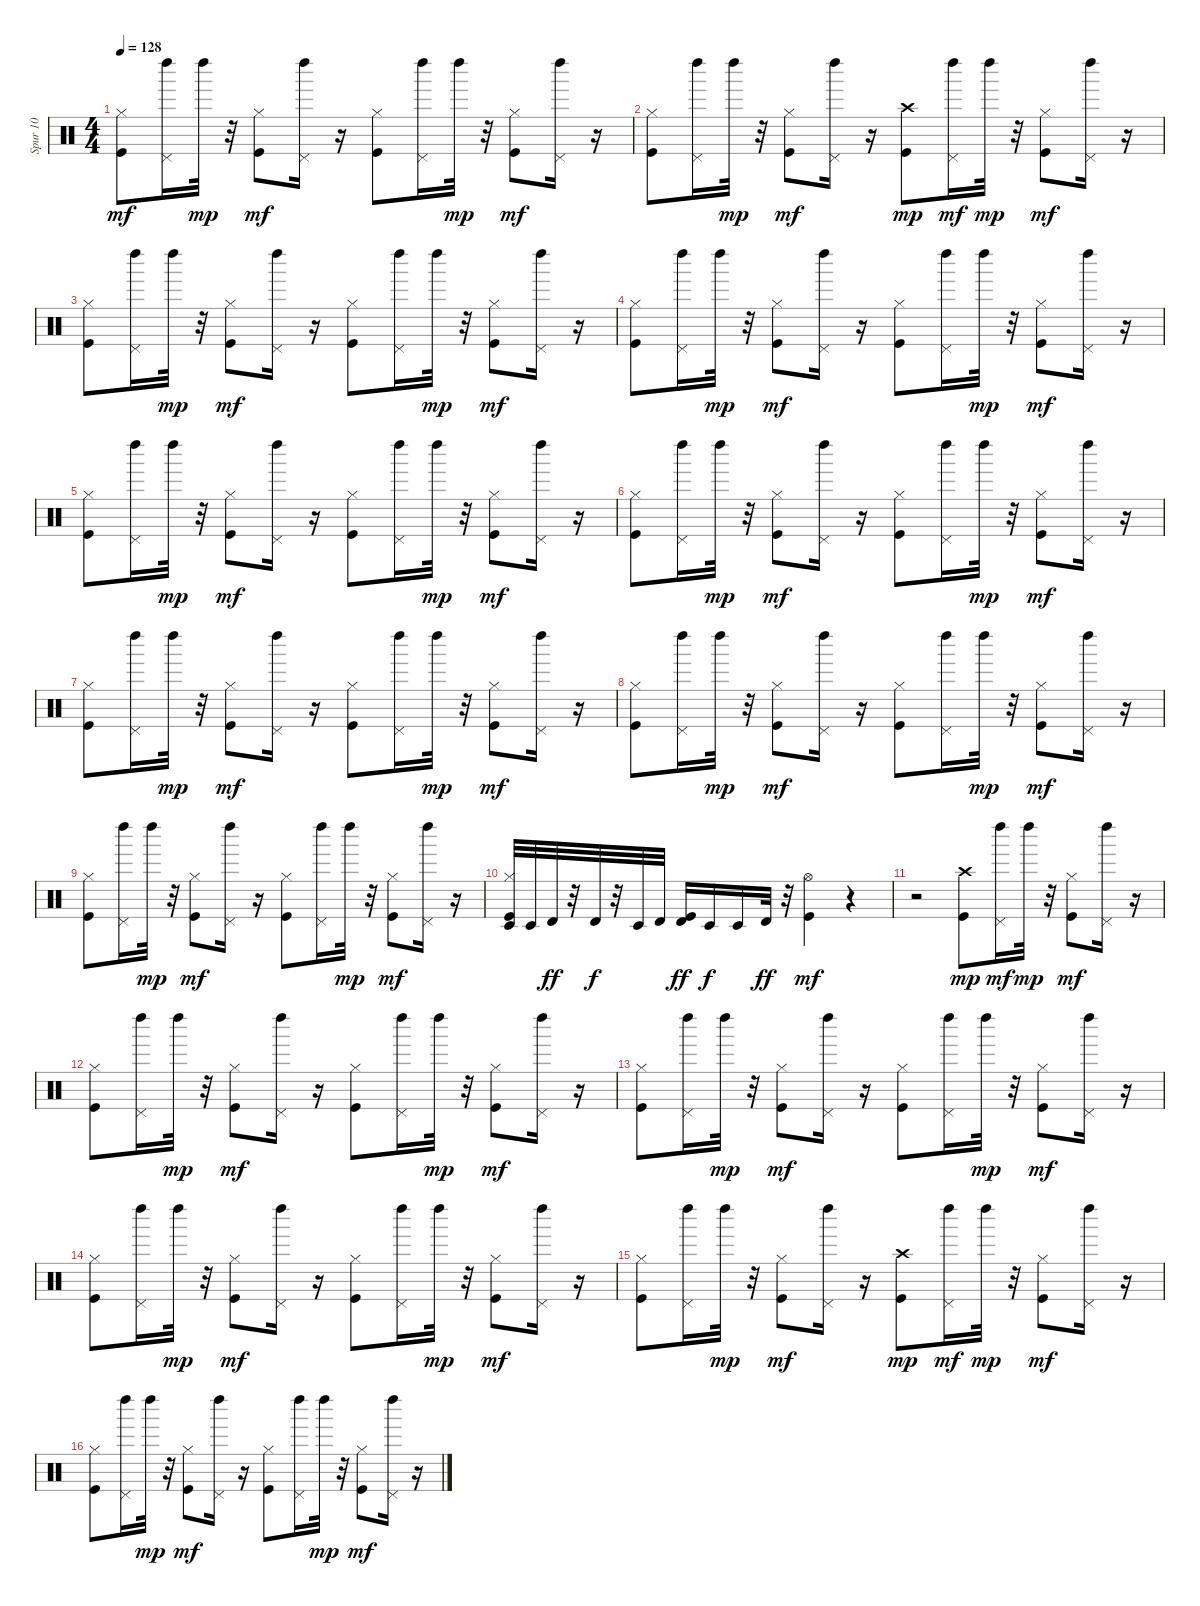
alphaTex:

\track ("Spur 10" "Spur 10") {instrument percussion}
\staff {score}
\articulation defaults
\ts (4 4)
\tempo 128
\clef neutral
\ks c
("Kick (hit)" "Hi-Hat (closed)").8{dy mf} ("Pedal Hi-Hat (hit)" "Left Maraca (hit)").16 "Left Maraca (hit)".32{dy mp} r.32 ("Kick (hit)" "Hi-Hat (closed)").8{dy mf} ("Pedal Hi-Hat (hit)" "Left Maraca (hit)").16 r.16 ("Kick (hit)" "Hi-Hat (closed)").8 ("Pedal Hi-Hat (hit)" "Left Maraca (hit)").16 "Left Maraca (hit)".32{dy mp} r.32 ("Kick (hit)" "Hi-Hat (closed)").8{dy mf} ("Pedal Hi-Hat (hit)" "Left Maraca (hit)").16 r.16 |
("Kick (hit)" "Hi-Hat (closed)").8 ("Pedal Hi-Hat (hit)" "Left Maraca (hit)").16 "Left Maraca (hit)".32{dy mp} r.32 ("Kick (hit)" "Hi-Hat (closed)").8{dy mf} ("Pedal Hi-Hat (hit)" "Left Maraca (hit)").16 r.16 ("Kick (hit)" "Crash high (hit)").8{dy mp} ("Pedal Hi-Hat (hit)" "Left Maraca (hit)").16{dy mf} "Left Maraca (hit)".32{dy mp} r.32 ("Kick (hit)" "Hi-Hat (closed)").8{dy mf} ("Pedal Hi-Hat (hit)" "Left Maraca (hit)").16 r.16 |
("Kick (hit)" "Hi-Hat (closed)").8 ("Pedal Hi-Hat (hit)" "Left Maraca (hit)").16 "Left Maraca (hit)".32{dy mp} r.32 ("Kick (hit)" "Hi-Hat (closed)").8{dy mf} ("Pedal Hi-Hat (hit)" "Left Maraca (hit)").16 r.16 ("Kick (hit)" "Hi-Hat (closed)").8 ("Pedal Hi-Hat (hit)" "Left Maraca (hit)").16 "Left Maraca (hit)".32{dy mp} r.32 ("Kick (hit)" "Hi-Hat (closed)").8{dy mf} ("Pedal Hi-Hat (hit)" "Left Maraca (hit)").16 r.16 |
("Kick (hit)" "Hi-Hat (closed)").8 ("Pedal Hi-Hat (hit)" "Left Maraca (hit)").16 "Left Maraca (hit)".32{dy mp} r.32 ("Kick (hit)" "Hi-Hat (closed)").8{dy mf} ("Pedal Hi-Hat (hit)" "Left Maraca (hit)").16 r.16 ("Kick (hit)" "Hi-Hat (closed)").8 ("Pedal Hi-Hat (hit)" "Left Maraca (hit)").16 "Left Maraca (hit)".32{dy mp} r.32 ("Kick (hit)" "Hi-Hat (closed)").8{dy mf} ("Pedal Hi-Hat (hit)" "Left Maraca (hit)").16 r.16 |
("Kick (hit)" "Hi-Hat (closed)").8 ("Pedal Hi-Hat (hit)" "Left Maraca (hit)").16 "Left Maraca (hit)".32{dy mp} r.32 ("Kick (hit)" "Hi-Hat (closed)").8{dy mf} ("Pedal Hi-Hat (hit)" "Left Maraca (hit)").16 r.16 ("Kick (hit)" "Hi-Hat (closed)").8 ("Pedal Hi-Hat (hit)" "Left Maraca (hit)").16 "Left Maraca (hit)".32{dy mp} r.32 ("Kick (hit)" "Hi-Hat (closed)").8{dy mf} ("Pedal Hi-Hat (hit)" "Left Maraca (hit)").16 r.16 |
("Kick (hit)" "Hi-Hat (closed)").8 ("Pedal Hi-Hat (hit)" "Left Maraca (hit)").16 "Left Maraca (hit)".32{dy mp} r.32 ("Kick (hit)" "Hi-Hat (closed)").8{dy mf} ("Pedal Hi-Hat (hit)" "Left Maraca (hit)").16 r.16 ("Kick (hit)" "Hi-Hat (closed)").8 ("Pedal Hi-Hat (hit)" "Left Maraca (hit)").16 "Left Maraca (hit)".32{dy mp} r.32 ("Kick (hit)" "Hi-Hat (closed)").8{dy mf} ("Pedal Hi-Hat (hit)" "Left Maraca (hit)").16 r.16 |
("Kick (hit)" "Hi-Hat (closed)").8 ("Pedal Hi-Hat (hit)" "Left Maraca (hit)").16 "Left Maraca (hit)".32{dy mp} r.32 ("Kick (hit)" "Hi-Hat (closed)").8{dy mf} ("Pedal Hi-Hat (hit)" "Left Maraca (hit)").16 r.16 ("Kick (hit)" "Hi-Hat (closed)").8 ("Pedal Hi-Hat (hit)" "Left Maraca (hit)").16 "Left Maraca (hit)".32{dy mp} r.32 ("Kick (hit)" "Hi-Hat (closed)").8{dy mf} ("Pedal Hi-Hat (hit)" "Left Maraca (hit)").16 r.16 |
("Kick (hit)" "Hi-Hat (closed)").8 ("Pedal Hi-Hat (hit)" "Left Maraca (hit)").16 "Left Maraca (hit)".32{dy mp} r.32 ("Kick (hit)" "Hi-Hat (closed)").8{dy mf} ("Pedal Hi-Hat (hit)" "Left Maraca (hit)").16 r.16 ("Kick (hit)" "Hi-Hat (closed)").8 ("Pedal Hi-Hat (hit)" "Left Maraca (hit)").16 "Left Maraca (hit)".32{dy mp} r.32 ("Kick (hit)" "Hi-Hat (closed)").8{dy mf} ("Pedal Hi-Hat (hit)" "Left Maraca (hit)").16 r.16 |
("Kick (hit)" "Hi-Hat (closed)").8 ("Pedal Hi-Hat (hit)" "Left Maraca (hit)").16 "Left Maraca (hit)".32{dy mp} r.32 ("Kick (hit)" "Hi-Hat (closed)").8{dy mf} ("Pedal Hi-Hat (hit)" "Left Maraca (hit)").16 r.16 ("Kick (hit)" "Hi-Hat (closed)").8 ("Pedal Hi-Hat (hit)" "Left Maraca (hit)").16 "Left Maraca (hit)".32{dy mp} r.32 ("Kick (hit)" "Hi-Hat (closed)").8{dy mf} ("Pedal Hi-Hat (hit)" "Left Maraca (hit)").16 r.16 |
("Kick (hit)" "Hi-Hat (closed)" "Timbale low (hit)").32 "Timbale low (hit)".32 "Timbale high (hit)".32{dy ff} r.32 "Timbale high (hit)".32{dy f} r.32 "Timbale low (hit)".32 "Timbale high (hit)".32 ("Kick (hit)" "Timbale high (hit)").16{dy ff} "Timbale low (hit)".16{dy f} "Timbale low (hit)".16 "Timbale high (hit)".32{dy ff} r.32 ("Kick (hit)" "Hi-Hat (open)").4{dy mf} r.4 |
r.2 ("Kick (hit)" "Crash high (hit)").8{dy mp} ("Pedal Hi-Hat (hit)" "Left Maraca (hit)").16{dy mf} "Left Maraca (hit)".32{dy mp} r.32 ("Kick (hit)" "Hi-Hat (closed)").8{dy mf} ("Pedal Hi-Hat (hit)" "Left Maraca (hit)").16 r.16 |
("Kick (hit)" "Hi-Hat (closed)").8 ("Pedal Hi-Hat (hit)" "Left Maraca (hit)").16 "Left Maraca (hit)".32{dy mp} r.32 ("Kick (hit)" "Hi-Hat (closed)").8{dy mf} ("Pedal Hi-Hat (hit)" "Left Maraca (hit)").16 r.16 ("Kick (hit)" "Hi-Hat (closed)").8 ("Pedal Hi-Hat (hit)" "Left Maraca (hit)").16 "Left Maraca (hit)".32{dy mp} r.32 ("Kick (hit)" "Hi-Hat (closed)").8{dy mf} ("Pedal Hi-Hat (hit)" "Left Maraca (hit)").16 r.16 |
("Kick (hit)" "Hi-Hat (closed)").8 ("Pedal Hi-Hat (hit)" "Left Maraca (hit)").16 "Left Maraca (hit)".32{dy mp} r.32 ("Kick (hit)" "Hi-Hat (closed)").8{dy mf} ("Pedal Hi-Hat (hit)" "Left Maraca (hit)").16 r.16 ("Kick (hit)" "Hi-Hat (closed)").8 ("Pedal Hi-Hat (hit)" "Left Maraca (hit)").16 "Left Maraca (hit)".32{dy mp} r.32 ("Kick (hit)" "Hi-Hat (closed)").8{dy mf} ("Pedal Hi-Hat (hit)" "Left Maraca (hit)").16 r.16 |
("Kick (hit)" "Hi-Hat (closed)").8 ("Pedal Hi-Hat (hit)" "Left Maraca (hit)").16 "Left Maraca (hit)".32{dy mp} r.32 ("Kick (hit)" "Hi-Hat (closed)").8{dy mf} ("Pedal Hi-Hat (hit)" "Left Maraca (hit)").16 r.16 ("Kick (hit)" "Hi-Hat (closed)").8 ("Pedal Hi-Hat (hit)" "Left Maraca (hit)").16 "Left Maraca (hit)".32{dy mp} r.32 ("Kick (hit)" "Hi-Hat (closed)").8{dy mf} ("Pedal Hi-Hat (hit)" "Left Maraca (hit)").16 r.16 |
("Kick (hit)" "Hi-Hat (closed)").8 ("Pedal Hi-Hat (hit)" "Left Maraca (hit)").16 "Left Maraca (hit)".32{dy mp} r.32 ("Kick (hit)" "Hi-Hat (closed)").8{dy mf} ("Pedal Hi-Hat (hit)" "Left Maraca (hit)").16 r.16 ("Kick (hit)" "Crash high (hit)").8{dy mp} ("Pedal Hi-Hat (hit)" "Left Maraca (hit)").16{dy mf} "Left Maraca (hit)".32{dy mp} r.32 ("Kick (hit)" "Hi-Hat (closed)").8{dy mf} ("Pedal Hi-Hat (hit)" "Left Maraca (hit)").16 r.16 |
("Kick (hit)" "Hi-Hat (closed)").8 ("Pedal Hi-Hat (hit)" "Left Maraca (hit)").16 "Left Maraca (hit)".32{dy mp} r.32 ("Kick (hit)" "Hi-Hat (closed)").8{dy mf} ("Pedal Hi-Hat (hit)" "Left Maraca (hit)").16 r.16 ("Kick (hit)" "Hi-Hat (closed)").8 ("Pedal Hi-Hat (hit)" "Left Maraca (hit)").16 "Left Maraca (hit)".32{dy mp} r.32 ("Kick (hit)" "Hi-Hat (closed)").8{dy mf} ("Pedal Hi-Hat (hit)" "Left Maraca (hit)").16 r.16
